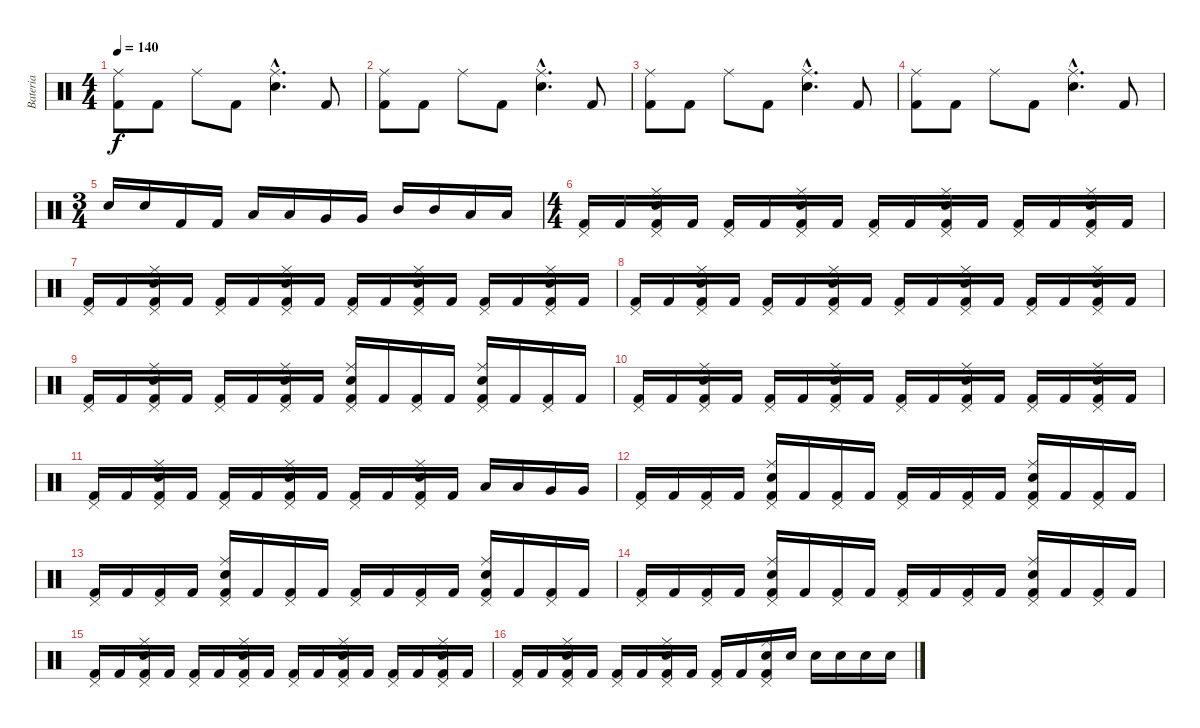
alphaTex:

\track ("Bateria" "Bateria") {instrument percussion}
\staff {score}
\articulation defaults
\ts (4 4)
\tempo 140
\clef neutral
\ks c
("Kick (hit) 2" "Ride (middle)").8{dy f} "Kick (hit) 2".8 "Ride (middle)".8 "Kick (hit) 2".8 ("Electric Snare (hit)"{hac} "Ride (middle)"{hac}).4{d} "Kick (hit) 2".8 |
("Kick (hit) 2" "Ride (middle)").8 "Kick (hit) 2".8 "Ride (middle)".8 "Kick (hit) 2".8 ("Electric Snare (hit)"{hac} "Ride (middle)"{hac}).4{d} "Kick (hit) 2".8 |
("Kick (hit) 2" "Ride (middle)").8 "Kick (hit) 2".8 "Ride (middle)".8 "Kick (hit) 2".8 ("Electric Snare (hit)"{hac} "Ride (middle)"{hac}).4{d} "Kick (hit) 2".8 |
("Kick (hit) 2" "Ride (middle)").8 "Kick (hit) 2".8 "Ride (middle)".8 "Kick (hit) 2".8 ("Electric Snare (hit)"{hac} "Ride (middle)"{hac}).4{d} "Kick (hit) 2".8 |
\ts (3 4)
"Electric Snare (hit)".16 "Electric Snare (hit)".16 "Kick (hit) 2".16 "Kick (hit) 2".16 "Low Tom (hit)".16 "Low Tom (hit)".16 "Very Low Tom (hit)".16 "Very Low Tom (hit)".16 "Mid Tom (hit)".16 "Mid Tom (hit)".16 "Low Tom (hit)".16 "Low Tom (hit)".16 |
\ts (4 4)
("Kick (hit) 2" "Pedal Hi-Hat (hit)").16 "Kick (hit) 2".16 ("Kick (hit) 2" "Electric Snare (hit)" "Ride (middle)" "Pedal Hi-Hat (hit)").16 "Kick (hit) 2".16 ("Kick (hit) 2" "Pedal Hi-Hat (hit)").16 "Kick (hit) 2".16 ("Kick (hit) 2" "Electric Snare (hit)" "Ride (middle)" "Pedal Hi-Hat (hit)").16 "Kick (hit) 2".16 ("Kick (hit) 2" "Pedal Hi-Hat (hit)").16 "Kick (hit) 2".16 ("Kick (hit) 2" "Electric Snare (hit)" "Ride (middle)" "Pedal Hi-Hat (hit)").16 "Kick (hit) 2".16 ("Kick (hit) 2" "Pedal Hi-Hat (hit)").16 "Kick (hit) 2".16 ("Kick (hit) 2" "Electric Snare (hit)" "Ride (middle)" "Pedal Hi-Hat (hit)").16 "Kick (hit) 2".16 |
("Kick (hit) 2" "Pedal Hi-Hat (hit)").16 "Kick (hit) 2".16 ("Kick (hit) 2" "Electric Snare (hit)" "Ride (middle)" "Pedal Hi-Hat (hit)").16 "Kick (hit) 2".16 ("Kick (hit) 2" "Pedal Hi-Hat (hit)").16 "Kick (hit) 2".16 ("Kick (hit) 2" "Electric Snare (hit)" "Ride (middle)" "Pedal Hi-Hat (hit)").16 "Kick (hit) 2".16 ("Kick (hit) 2" "Pedal Hi-Hat (hit)").16 "Kick (hit) 2".16 ("Kick (hit) 2" "Electric Snare (hit)" "Ride (middle)" "Pedal Hi-Hat (hit)").16 "Kick (hit) 2".16 ("Kick (hit) 2" "Pedal Hi-Hat (hit)").16 "Kick (hit) 2".16 ("Kick (hit) 2" "Electric Snare (hit)" "Ride (middle)" "Pedal Hi-Hat (hit)").16 "Kick (hit) 2".16 |
("Kick (hit) 2" "Pedal Hi-Hat (hit)").16 "Kick (hit) 2".16 ("Kick (hit) 2" "Electric Snare (hit)" "Ride (middle)" "Pedal Hi-Hat (hit)").16 "Kick (hit) 2".16 ("Kick (hit) 2" "Pedal Hi-Hat (hit)").16 "Kick (hit) 2".16 ("Kick (hit) 2" "Electric Snare (hit)" "Ride (middle)" "Pedal Hi-Hat (hit)").16 "Kick (hit) 2".16 ("Kick (hit) 2" "Pedal Hi-Hat (hit)").16 "Kick (hit) 2".16 ("Kick (hit) 2" "Electric Snare (hit)" "Ride (middle)" "Pedal Hi-Hat (hit)").16 "Kick (hit) 2".16 ("Kick (hit) 2" "Pedal Hi-Hat (hit)").16 "Kick (hit) 2".16 ("Kick (hit) 2" "Electric Snare (hit)" "Ride (middle)" "Pedal Hi-Hat (hit)").16 "Kick (hit) 2".16 |
("Kick (hit) 2" "Pedal Hi-Hat (hit)").16 "Kick (hit) 2".16 ("Kick (hit) 2" "Electric Snare (hit)" "Ride (middle)" "Pedal Hi-Hat (hit)").16 "Kick (hit) 2".16 ("Kick (hit) 2" "Pedal Hi-Hat (hit)").16 "Kick (hit) 2".16 ("Kick (hit) 2" "Electric Snare (hit)" "Ride (middle)" "Pedal Hi-Hat (hit)").16 "Kick (hit) 2".16 ("Kick (hit) 2" "Electric Snare (hit)" "Ride (middle)" "Pedal Hi-Hat (hit)").16 "Kick (hit) 2".16 ("Kick (hit) 2" "Pedal Hi-Hat (hit)").16 "Kick (hit) 2".16 ("Kick (hit) 2" "Electric Snare (hit)" "Ride (middle)" "Pedal Hi-Hat (hit)").16 "Kick (hit) 2".16 ("Kick (hit) 2" "Pedal Hi-Hat (hit)").16 "Kick (hit) 2".16 |
("Kick (hit) 2" "Pedal Hi-Hat (hit)").16 "Kick (hit) 2".16 ("Kick (hit) 2" "Electric Snare (hit)" "Ride (middle)" "Pedal Hi-Hat (hit)").16 "Kick (hit) 2".16 ("Kick (hit) 2" "Pedal Hi-Hat (hit)").16 "Kick (hit) 2".16 ("Kick (hit) 2" "Electric Snare (hit)" "Ride (middle)" "Pedal Hi-Hat (hit)").16 "Kick (hit) 2".16 ("Kick (hit) 2" "Pedal Hi-Hat (hit)").16 "Kick (hit) 2".16 ("Kick (hit) 2" "Electric Snare (hit)" "Ride (middle)" "Pedal Hi-Hat (hit)").16 "Kick (hit) 2".16 ("Kick (hit) 2" "Pedal Hi-Hat (hit)").16 "Kick (hit) 2".16 ("Kick (hit) 2" "Electric Snare (hit)" "Ride (middle)" "Pedal Hi-Hat (hit)").16 "Kick (hit) 2".16 |
("Kick (hit) 2" "Pedal Hi-Hat (hit)").16 "Kick (hit) 2".16 ("Kick (hit) 2" "Electric Snare (hit)" "Ride (middle)" "Pedal Hi-Hat (hit)").16 "Kick (hit) 2".16 ("Kick (hit) 2" "Pedal Hi-Hat (hit)").16 "Kick (hit) 2".16 ("Kick (hit) 2" "Electric Snare (hit)" "Ride (middle)" "Pedal Hi-Hat (hit)").16 "Kick (hit) 2".16 ("Kick (hit) 2" "Pedal Hi-Hat (hit)").16 "Kick (hit) 2".16 ("Kick (hit) 2" "Electric Snare (hit)" "Ride (middle)" "Pedal Hi-Hat (hit)").16 "Kick (hit) 2".16 "Low Tom (hit)".16 "Low Tom (hit)".16 "Very Low Tom (hit)".16 "Very Low Tom (hit)".16 |
("Kick (hit) 2" "Pedal Hi-Hat (hit)").16 "Kick (hit) 2".16 ("Kick (hit) 2" "Pedal Hi-Hat (hit)").16 "Kick (hit) 2".16 ("Kick (hit) 2" "Electric Snare (hit)" "Ride (middle)" "Pedal Hi-Hat (hit)").16 "Kick (hit) 2".16 ("Kick (hit) 2" "Pedal Hi-Hat (hit)").16 "Kick (hit) 2".16 ("Kick (hit) 2" "Pedal Hi-Hat (hit)").16 "Kick (hit) 2".16 ("Kick (hit) 2" "Pedal Hi-Hat (hit)").16 "Kick (hit) 2".16 ("Kick (hit) 2" "Electric Snare (hit)" "Ride (middle)" "Pedal Hi-Hat (hit)").16 "Kick (hit) 2".16 ("Kick (hit) 2" "Pedal Hi-Hat (hit)").16 "Kick (hit) 2".16 |
("Kick (hit) 2" "Pedal Hi-Hat (hit)").16 "Kick (hit) 2".16 ("Kick (hit) 2" "Pedal Hi-Hat (hit)").16 "Kick (hit) 2".16 ("Kick (hit) 2" "Electric Snare (hit)" "Ride (middle)" "Pedal Hi-Hat (hit)").16 "Kick (hit) 2".16 ("Kick (hit) 2" "Pedal Hi-Hat (hit)").16 "Kick (hit) 2".16 ("Kick (hit) 2" "Pedal Hi-Hat (hit)").16 "Kick (hit) 2".16 ("Kick (hit) 2" "Pedal Hi-Hat (hit)").16 "Kick (hit) 2".16 ("Kick (hit) 2" "Electric Snare (hit)" "Ride (middle)" "Pedal Hi-Hat (hit)").16 "Kick (hit) 2".16 ("Kick (hit) 2" "Pedal Hi-Hat (hit)").16 "Kick (hit) 2".16 |
("Kick (hit) 2" "Pedal Hi-Hat (hit)").16 "Kick (hit) 2".16 ("Kick (hit) 2" "Pedal Hi-Hat (hit)").16 "Kick (hit) 2".16 ("Kick (hit) 2" "Electric Snare (hit)" "Ride (middle)" "Pedal Hi-Hat (hit)").16 "Kick (hit) 2".16 ("Kick (hit) 2" "Pedal Hi-Hat (hit)").16 "Kick (hit) 2".16 ("Kick (hit) 2" "Pedal Hi-Hat (hit)").16 "Kick (hit) 2".16 ("Kick (hit) 2" "Pedal Hi-Hat (hit)").16 "Kick (hit) 2".16 ("Kick (hit) 2" "Electric Snare (hit)" "Ride (middle)" "Pedal Hi-Hat (hit)").16 "Kick (hit) 2".16 ("Kick (hit) 2" "Pedal Hi-Hat (hit)").16 "Kick (hit) 2".16 |
("Kick (hit) 2" "Pedal Hi-Hat (hit)").16 "Kick (hit) 2".16 ("Kick (hit) 2" "Electric Snare (hit)" "Ride (middle)" "Pedal Hi-Hat (hit)").16 "Kick (hit) 2".16 ("Kick (hit) 2" "Pedal Hi-Hat (hit)").16 "Kick (hit) 2".16 ("Kick (hit) 2" "Electric Snare (hit)" "Ride (middle)" "Pedal Hi-Hat (hit)").16 "Kick (hit) 2".16 ("Kick (hit) 2" "Pedal Hi-Hat (hit)").16 "Kick (hit) 2".16 ("Kick (hit) 2" "Electric Snare (hit)" "Ride (middle)" "Pedal Hi-Hat (hit)").16 "Kick (hit) 2".16 ("Kick (hit) 2" "Pedal Hi-Hat (hit)").16 "Kick (hit) 2".16 ("Kick (hit) 2" "Electric Snare (hit)" "Ride (middle)" "Pedal Hi-Hat (hit)").16 "Kick (hit) 2".16 |
("Kick (hit) 2" "Pedal Hi-Hat (hit)").16 "Kick (hit) 2".16 ("Kick (hit) 2" "Electric Snare (hit)" "Ride (middle)" "Pedal Hi-Hat (hit)").16 "Kick (hit) 2".16 ("Kick (hit) 2" "Pedal Hi-Hat (hit)").16 "Kick (hit) 2".16 ("Kick (hit) 2" "Electric Snare (hit)" "Ride (middle)" "Pedal Hi-Hat (hit)").16 "Kick (hit) 2".16 ("Kick (hit) 2" "Pedal Hi-Hat (hit)").16 "Kick (hit) 2".16 ("Kick (hit) 2" "Electric Snare (hit)" "Ride (middle)" "Pedal Hi-Hat (hit)").16 "Electric Snare (hit)".16 "Electric Snare (hit)".16 "Electric Snare (hit)".16 "Electric Snare (hit)".16 "Electric Snare (hit)".16
